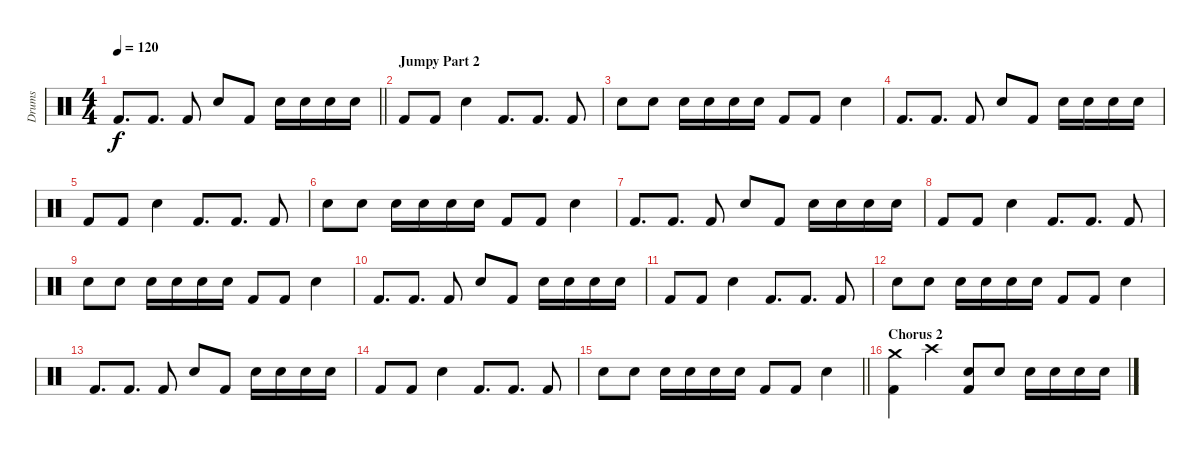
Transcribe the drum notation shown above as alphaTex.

\track ("Drums" "Drums") {instrument percussion}
\staff {score}
\articulation defaults
\ts (4 4)
\tempo 120
\clef neutral
\barLineRight lightlight
\ks c "Kick (hit) 2".8{d dy f} "Kick (hit) 2".8{d} "Kick (hit) 2".8 "Electric Snare (hit)".8 "Kick (hit) 2".8 "Snare (hit) 2".16 "Snare (hit) 2".16 "Snare (hit) 2".16 "Snare (hit) 2".16
|
\section ("" "Jumpy Part 2")
"Kick (hit) 2".8 "Kick (hit) 2".8 "Electric Snare (hit)".4 "Kick (hit) 2".8{d} "Kick (hit) 2".8{d} "Kick (hit) 2".8 |
"Electric Snare (hit)".8 "Electric Snare (hit)".8 "Snare (hit) 2".16 "Snare (hit) 2".16 "Snare (hit) 2".16 "Snare (hit) 2".16 "Kick (hit) 2".8 "Kick (hit) 2".8 "Electric Snare (hit)".4 |
"Kick (hit) 2".8{d} "Kick (hit) 2".8{d} "Kick (hit) 2".8 "Electric Snare (hit)".8 "Kick (hit) 2".8 "Snare (hit) 2".16 "Snare (hit) 2".16 "Snare (hit) 2".16 "Snare (hit) 2".16 |
"Kick (hit) 2".8 "Kick (hit) 2".8 "Electric Snare (hit)".4 "Kick (hit) 2".8{d} "Kick (hit) 2".8{d} "Kick (hit) 2".8 |
"Electric Snare (hit)".8 "Electric Snare (hit)".8 "Snare (hit) 2".16 "Snare (hit) 2".16 "Snare (hit) 2".16 "Snare (hit) 2".16 "Kick (hit) 2".8 "Kick (hit) 2".8 "Electric Snare (hit)".4 |
"Kick (hit) 2".8{d} "Kick (hit) 2".8{d} "Kick (hit) 2".8 "Electric Snare (hit)".8 "Kick (hit) 2".8 "Snare (hit) 2".16 "Snare (hit) 2".16 "Snare (hit) 2".16 "Snare (hit) 2".16 |
"Kick (hit) 2".8 "Kick (hit) 2".8 "Electric Snare (hit)".4 "Kick (hit) 2".8{d} "Kick (hit) 2".8{d} "Kick (hit) 2".8 |
"Electric Snare (hit)".8 "Electric Snare (hit)".8 "Snare (hit) 2".16 "Snare (hit) 2".16 "Snare (hit) 2".16 "Snare (hit) 2".16 "Kick (hit) 2".8 "Kick (hit) 2".8 "Electric Snare (hit)".4 |
"Kick (hit) 2".8{d} "Kick (hit) 2".8{d} "Kick (hit) 2".8 "Electric Snare (hit)".8 "Kick (hit) 2".8 "Snare (hit) 2".16 "Snare (hit) 2".16 "Snare (hit) 2".16 "Snare (hit) 2".16 |
"Kick (hit) 2".8 "Kick (hit) 2".8 "Electric Snare (hit)".4 "Kick (hit) 2".8{d} "Kick (hit) 2".8{d} "Kick (hit) 2".8 |
"Electric Snare (hit)".8 "Electric Snare (hit)".8 "Snare (hit) 2".16 "Snare (hit) 2".16 "Snare (hit) 2".16 "Snare (hit) 2".16 "Kick (hit) 2".8 "Kick (hit) 2".8 "Electric Snare (hit)".4 |
"Kick (hit) 2".8{d} "Kick (hit) 2".8{d} "Kick (hit) 2".8 "Electric Snare (hit)".8 "Kick (hit) 2".8 "Snare (hit) 2".16 "Snare (hit) 2".16 "Snare (hit) 2".16 "Snare (hit) 2".16 |
"Kick (hit) 2".8 "Kick (hit) 2".8 "Electric Snare (hit)".4 "Kick (hit) 2".8{d} "Kick (hit) 2".8{d} "Kick (hit) 2".8 |
\barLineRight lightlight "Electric Snare (hit)".8 "Electric Snare (hit)".8 "Snare (hit) 2".16 "Snare (hit) 2".16 "Snare (hit) 2".16 "Snare (hit) 2".16 "Kick (hit) 2".8 "Kick (hit) 2".8 "Electric Snare (hit)".4
|
\section ("" "Chorus 2")
("Kick (hit) 2" "Crash medium (hit)").4 "Crash high (hit)".4 ("Snare (hit) 2" "Kick (hit) 2").8 "Electric Snare (hit)".8 "Snare (hit) 2".16 "Electric Snare (hit)".16 "Snare (hit) 2".16 "Electric Snare (hit)".16
